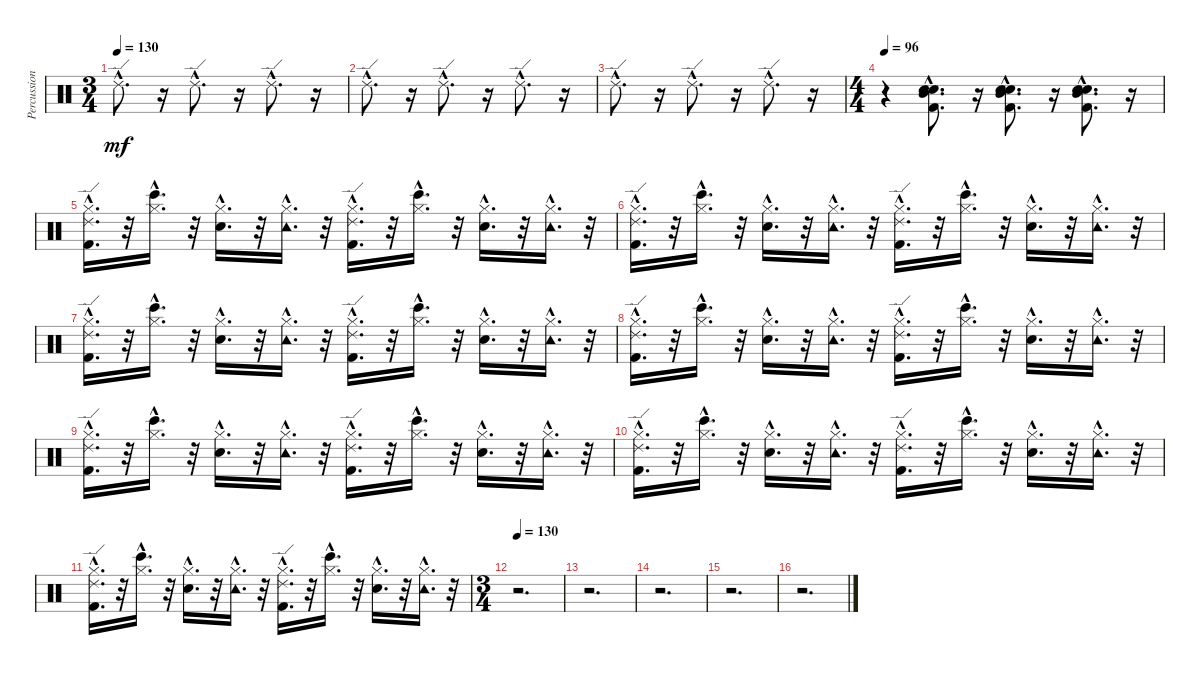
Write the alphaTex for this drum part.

\track ("Percussion (Channel 10)" "Percussion") {instrument percussion}
\staff {score}
\articulation defaults
\ts (3 4)
\tempo 130
\clef neutral
\ks c "Ride (edge) 2"{hac}.8{d dy mf}
r.16 "Ride (edge) 2"{hac}.8{d} r.16 "Ride (edge) 2"{hac}.8{d} r.16 |
"Ride (edge) 2"{hac}.8{d} r.16 "Ride (edge) 2"{hac}.8{d} r.16 "Ride (edge) 2"{hac}.8{d} r.16 |
"Ride (edge) 2"{hac}.8{d} r.16 "Ride (edge) 2"{hac}.8{d} r.16 "Ride (edge) 2"{hac}.8{d} r.16 |
\ts (4 4)
\tempo 96
r.4 ("Mid Tom (hit)"{hac} "Electric Snare (hit)"{hac} "Kick (hit) 2"{hac} "Snare (hit) 2"{hac}).8{d} r.16 ("Mid Tom (hit)"{hac} "Electric Snare (hit)"{hac} "Kick (hit) 2"{hac} "Snare (hit) 2"{hac}).8{d} r.16 ("Mid Tom (hit)"{hac} "Electric Snare (hit)"{hac} "Kick (hit) 2"{hac} "Snare (hit) 2"{hac}).8{d} r.16 |
("Ride (edge) 2"{hac} "Kick (hit) 2"{hac} "Hi-Hat (closed)"{hac}).16{d} r.32 ("Bongo High (hit)"{hac} "Hi-Hat (closed)"{hac}).16{d} r.32 ("Snare (hit) 2"{hac} "Hi-Hat (closed)"{hac}).16{d} r.32 ("Tambourine (hit)"{hac} "Hi-Hat (closed)"{hac}).16{d} r.32 ("Ride (edge) 2"{hac} "Kick (hit) 2"{hac} "Hi-Hat (closed)"{hac}).16{d} r.32 ("Bongo High (hit)"{hac} "Hi-Hat (closed)"{hac}).16{d} r.32 ("Snare (hit) 2"{hac} "Hi-Hat (closed)"{hac}).16{d} r.32 ("Tambourine (hit)"{hac} "Hi-Hat (closed)"{hac}).16{d} r.32 |
("Hi-Hat (closed)"{hac} "Kick (hit) 2"{hac} "Ride (edge) 2"{hac}).16{d} r.32 ("Hi-Hat (closed)"{hac} "Bongo High (hit)"{hac}).16{d} r.32 ("Hi-Hat (closed)"{hac} "Snare (hit) 2"{hac}).16{d} r.32 ("Hi-Hat (closed)"{hac} "Tambourine (hit)"{hac}).16{d} r.32 ("Hi-Hat (closed)"{hac} "Kick (hit) 2"{hac} "Ride (edge) 2"{hac}).16{d} r.32 ("Hi-Hat (closed)"{hac} "Bongo High (hit)"{hac}).16{d} r.32 ("Hi-Hat (closed)"{hac} "Snare (hit) 2"{hac}).16{d} r.32 ("Hi-Hat (closed)"{hac} "Tambourine (hit)"{hac}).16{d} r.32 |
("Hi-Hat (closed)"{hac} "Kick (hit) 2"{hac} "Ride (edge) 2"{hac}).16{d} r.32 ("Hi-Hat (closed)"{hac} "Bongo High (hit)"{hac}).16{d} r.32 ("Hi-Hat (closed)"{hac} "Snare (hit) 2"{hac}).16{d} r.32 ("Hi-Hat (closed)"{hac} "Tambourine (hit)"{hac}).16{d} r.32 ("Hi-Hat (closed)"{hac} "Kick (hit) 2"{hac} "Ride (edge) 2"{hac}).16{d} r.32 ("Hi-Hat (closed)"{hac} "Bongo High (hit)"{hac}).16{d} r.32 ("Hi-Hat (closed)"{hac} "Snare (hit) 2"{hac}).16{d} r.32 ("Hi-Hat (closed)"{hac} "Tambourine (hit)"{hac}).16{d} r.32 |
("Hi-Hat (closed)"{hac} "Kick (hit) 2"{hac} "Ride (edge) 2"{hac}).16{d} r.32 ("Hi-Hat (closed)"{hac} "Bongo High (hit)"{hac}).16{d} r.32 ("Hi-Hat (closed)"{hac} "Snare (hit) 2"{hac}).16{d} r.32 ("Hi-Hat (closed)"{hac} "Tambourine (hit)"{hac}).16{d} r.32 ("Hi-Hat (closed)"{hac} "Kick (hit) 2"{hac} "Ride (edge) 2"{hac}).16{d} r.32 ("Hi-Hat (closed)"{hac} "Bongo High (hit)"{hac}).16{d} r.32 ("Hi-Hat (closed)"{hac} "Snare (hit) 2"{hac}).16{d} r.32 ("Hi-Hat (closed)"{hac} "Tambourine (hit)"{hac}).16{d} r.32 |
("Hi-Hat (closed)"{hac} "Kick (hit) 2"{hac} "Ride (edge) 2"{hac}).16{d} r.32 ("Hi-Hat (closed)"{hac} "Bongo High (hit)"{hac}).16{d} r.32 ("Hi-Hat (closed)"{hac} "Snare (hit) 2"{hac}).16{d} r.32 ("Hi-Hat (closed)"{hac} "Tambourine (hit)"{hac}).16{d} r.32 ("Hi-Hat (closed)"{hac} "Kick (hit) 2"{hac} "Ride (edge) 2"{hac}).16{d} r.32 ("Hi-Hat (closed)"{hac} "Bongo High (hit)"{hac}).16{d} r.32 ("Hi-Hat (closed)"{hac} "Snare (hit) 2"{hac}).16{d} r.32 ("Hi-Hat (closed)"{hac} "Tambourine (hit)"{hac}).16{d} r.32 |
("Ride (edge) 2"{hac} "Kick (hit) 2"{hac} "Hi-Hat (closed)"{hac}).16{d} r.32 ("Bongo High (hit)"{hac} "Hi-Hat (closed)"{hac}).16{d} r.32 ("Snare (hit) 2"{hac} "Hi-Hat (closed)"{hac}).16{d} r.32 ("Tambourine (hit)"{hac} "Hi-Hat (closed)"{hac}).16{d} r.32 ("Ride (edge) 2"{hac} "Kick (hit) 2"{hac} "Hi-Hat (closed)"{hac}).16{d} r.32 ("Bongo High (hit)"{hac} "Hi-Hat (closed)"{hac}).16{d} r.32 ("Snare (hit) 2"{hac} "Hi-Hat (closed)"{hac}).16{d} r.32 ("Tambourine (hit)"{hac} "Hi-Hat (closed)"{hac}).16{d} r.32 |
("Hi-Hat (closed)"{hac} "Kick (hit) 2"{hac} "Ride (edge) 2"{hac}).16{d} r.32 ("Hi-Hat (closed)"{hac} "Bongo High (hit)"{hac}).16{d} r.32 ("Hi-Hat (closed)"{hac} "Snare (hit) 2"{hac}).16{d} r.32 ("Hi-Hat (closed)"{hac} "Tambourine (hit)"{hac}).16{d} r.32 ("Hi-Hat (closed)"{hac} "Kick (hit) 2"{hac} "Ride (edge) 2"{hac}).16{d} r.32 ("Hi-Hat (closed)"{hac} "Bongo High (hit)"{hac}).16{d} r.32 ("Hi-Hat (closed)"{hac} "Snare (hit) 2"{hac}).16{d} r.32 ("Hi-Hat (closed)"{hac} "Tambourine (hit)"{hac}).16{d} r.32 |
\ts (3 4)
\tempo 130
r.2{d} |
r.2{d} |
r.2{d} |
r.2{d} |
r.2{d}
